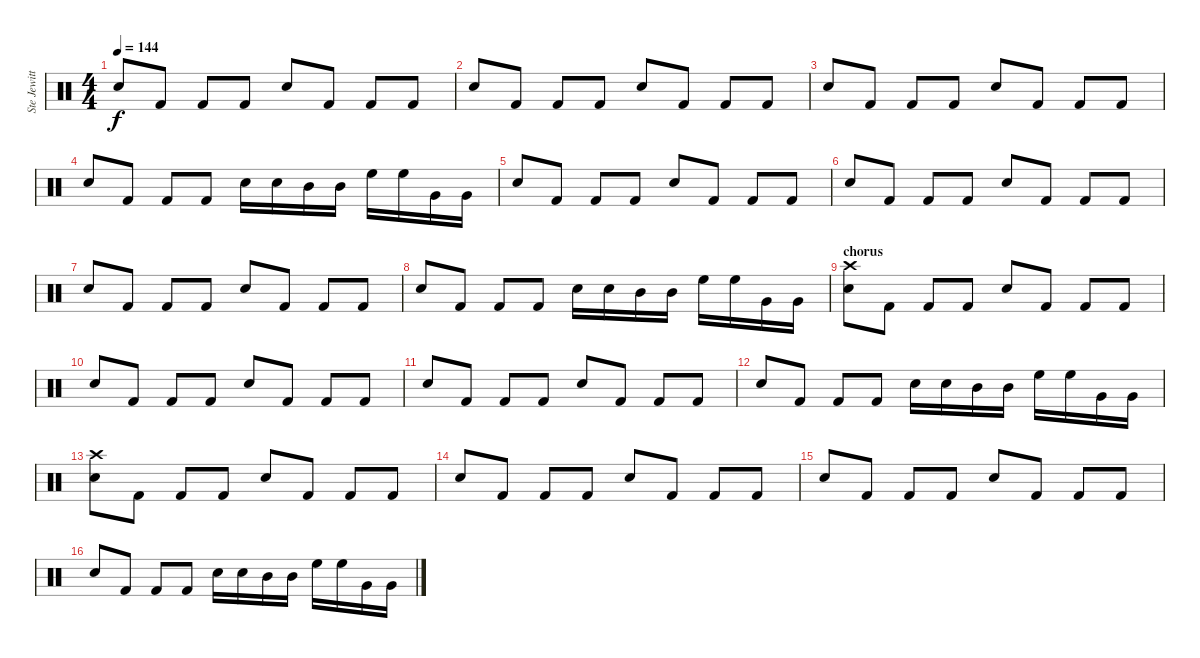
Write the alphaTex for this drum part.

\track ("Ste Jewitt (Drummer)" "Ste Jewitt") {instrument percussion}
\staff {score}
\articulation defaults
\ts (4 4)
\tempo 144
\clef neutral
\ks c "Snare (hit) 2".8{dy f} "Kick (hit) 2".8 "Kick (hit) 2".8 "Kick (hit) 2".8 "Snare (hit) 2".8 "Kick (hit) 2".8 "Kick (hit) 2".8 "Kick (hit) 2".8
|
"Snare (hit) 2".8 "Kick (hit) 2".8 "Kick (hit) 2".8 "Kick (hit) 2".8 "Snare (hit) 2".8 "Kick (hit) 2".8 "Kick (hit) 2".8 "Kick (hit) 2".8 |
"Snare (hit) 2".8 "Kick (hit) 2".8 "Kick (hit) 2".8 "Kick (hit) 2".8 "Snare (hit) 2".8 "Kick (hit) 2".8 "Kick (hit) 2".8 "Kick (hit) 2".8 |
"Snare (hit) 2".8 "Kick (hit) 2".8 "Kick (hit) 2".8 "Kick (hit) 2".8 "Snare (hit) 2".16 "Snare (hit) 2".16 "Mid Tom (hit)".16 "Mid Tom (hit)".16 "High Floor Tom (hit)".16 "High Floor Tom (hit)".16 "Very Low Tom (hit)".16 "Very Low Tom (hit)".16 |
"Snare (hit) 2".8 "Kick (hit) 2".8 "Kick (hit) 2".8 "Kick (hit) 2".8 "Snare (hit) 2".8 "Kick (hit) 2".8 "Kick (hit) 2".8 "Kick (hit) 2".8 |
"Snare (hit) 2".8 "Kick (hit) 2".8 "Kick (hit) 2".8 "Kick (hit) 2".8 "Snare (hit) 2".8 "Kick (hit) 2".8 "Kick (hit) 2".8 "Kick (hit) 2".8 |
"Snare (hit) 2".8 "Kick (hit) 2".8 "Kick (hit) 2".8 "Kick (hit) 2".8 "Snare (hit) 2".8 "Kick (hit) 2".8 "Kick (hit) 2".8 "Kick (hit) 2".8 |
"Snare (hit) 2".8 "Kick (hit) 2".8 "Kick (hit) 2".8 "Kick (hit) 2".8 "Snare (hit) 2".16 "Snare (hit) 2".16 "Mid Tom (hit)".16 "Mid Tom (hit)".16 "High Floor Tom (hit)".16 "High Floor Tom (hit)".16 "Very Low Tom (hit)".16 "Very Low Tom (hit)".16 |
\section ("" "chorus")
("Crash high (hit)" "Snare (hit) 2").8 "Kick (hit) 2".8 "Kick (hit) 2".8 "Kick (hit) 2".8 "Snare (hit) 2".8 "Kick (hit) 2".8 "Kick (hit) 2".8 "Kick (hit) 2".8 |
"Snare (hit) 2".8 "Kick (hit) 2".8 "Kick (hit) 2".8 "Kick (hit) 2".8 "Snare (hit) 2".8 "Kick (hit) 2".8 "Kick (hit) 2".8 "Kick (hit) 2".8 |
"Snare (hit) 2".8 "Kick (hit) 2".8 "Kick (hit) 2".8 "Kick (hit) 2".8 "Snare (hit) 2".8 "Kick (hit) 2".8 "Kick (hit) 2".8 "Kick (hit) 2".8 |
"Snare (hit) 2".8 "Kick (hit) 2".8 "Kick (hit) 2".8 "Kick (hit) 2".8 "Snare (hit) 2".16 "Snare (hit) 2".16 "Mid Tom (hit)".16 "Mid Tom (hit)".16 "High Floor Tom (hit)".16 "High Floor Tom (hit)".16 "Very Low Tom (hit)".16 "Very Low Tom (hit)".16 |
("Crash high (hit)" "Snare (hit) 2").8 "Kick (hit) 2".8 "Kick (hit) 2".8 "Kick (hit) 2".8 "Snare (hit) 2".8 "Kick (hit) 2".8 "Kick (hit) 2".8 "Kick (hit) 2".8 |
"Snare (hit) 2".8 "Kick (hit) 2".8 "Kick (hit) 2".8 "Kick (hit) 2".8 "Snare (hit) 2".8 "Kick (hit) 2".8 "Kick (hit) 2".8 "Kick (hit) 2".8 |
"Snare (hit) 2".8 "Kick (hit) 2".8 "Kick (hit) 2".8 "Kick (hit) 2".8 "Snare (hit) 2".8 "Kick (hit) 2".8 "Kick (hit) 2".8 "Kick (hit) 2".8 |
"Snare (hit) 2".8 "Kick (hit) 2".8 "Kick (hit) 2".8 "Kick (hit) 2".8 "Snare (hit) 2".16 "Snare (hit) 2".16 "Mid Tom (hit)".16 "Mid Tom (hit)".16 "High Floor Tom (hit)".16 "High Floor Tom (hit)".16 "Very Low Tom (hit)".16 "Very Low Tom (hit)".16
